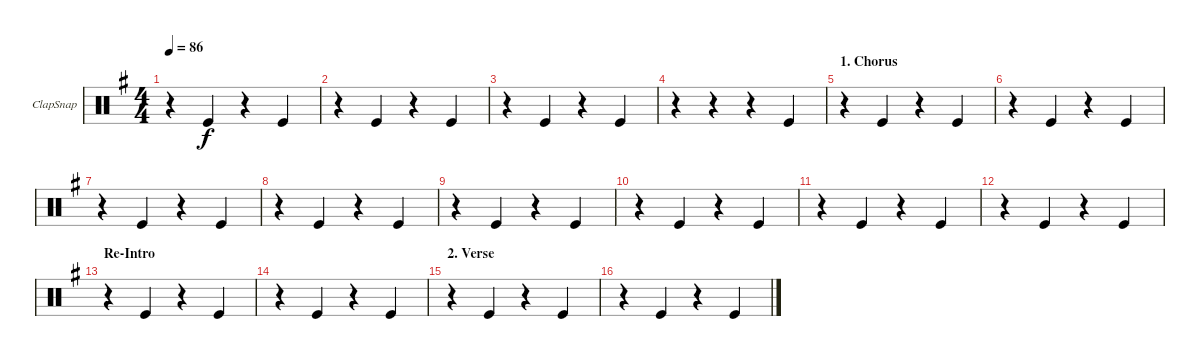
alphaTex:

\defaultSystemsLayout 4
\bracketExtendMode groupsimilarinstruments
\firstSystemTrackNameOrientation horizontal
\otherSystemsTrackNameOrientation horizontal
\track ("hand clap / snap" "ClapSnap") {instrument percussion}
\staff {score}
\articulation defaults
\ts (4 4)
\tempo 86
\clef neutral
\ks g
r.4{dy f} "Kick (hit)".4 r.4 "Kick (hit)".4 |
r.4 "Kick (hit)".4 r.4 "Kick (hit)".4 |
r.4 "Kick (hit)".4 r.4 "Kick (hit)".4 |
r.4 r.4 r.4 "Kick (hit)".4 |
\section ("" "1. Chorus")
r.4 "Kick (hit)".4 r.4 "Kick (hit)".4 |
r.4 "Kick (hit)".4 r.4 "Kick (hit)".4 |
r.4 "Kick (hit)".4 r.4 "Kick (hit)".4 |
r.4 "Kick (hit)".4 r.4 "Kick (hit)".4 |
r.4 "Kick (hit)".4 r.4 "Kick (hit)".4 |
r.4 "Kick (hit)".4 r.4 "Kick (hit)".4 |
r.4 "Kick (hit)".4 r.4 "Kick (hit)".4 |
r.4 "Kick (hit)".4 r.4 "Kick (hit)".4 |
\section ("" "Re-Intro")
\scale
0.479327 r.4 "Kick (hit)".4 r.4 "Kick (hit)".4 |
\scale
0.52068 r.4 "Kick (hit)".4 r.4 "Kick (hit)".4 |
\section ("" "2. Verse")
r.4 "Kick (hit)".4 r.4 "Kick (hit)".4 |
r.4 "Kick (hit)".4 r.4 "Kick (hit)".4
